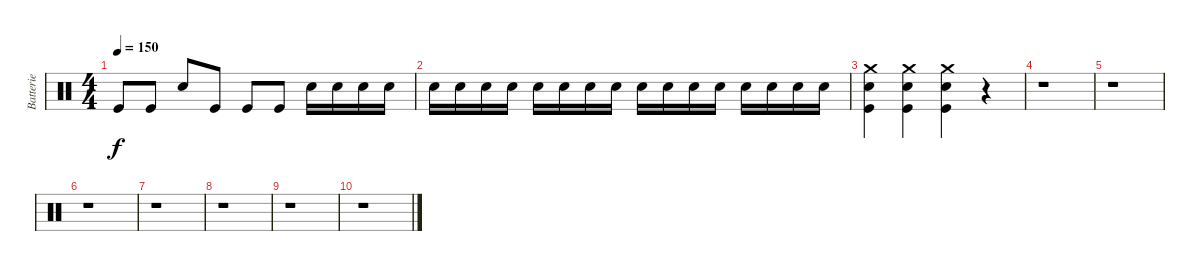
\track ("Batterie" "Batterie") {instrument percussion}
\staff {score}
\articulation defaults
\ts (4 4)
\tempo 150
\clef neutral
\ks c "Kick (hit)".8{dy f} "Kick (hit)".8 "Electric Snare (hit)".8 "Kick (hit)".8 "Kick (hit)".8 "Kick (hit)".8 "Electric Snare (hit)".16 "Electric Snare (hit)".16 "Electric Snare (hit)".16 "Electric Snare (hit)".16
|
"Electric Snare (hit)".16 "Electric Snare (hit)".16 "Electric Snare (hit)".16 "Electric Snare (hit)".16 "Electric Snare (hit)".16 "Electric Snare (hit)".16 "Electric Snare (hit)".16 "Electric Snare (hit)".16 "Electric Snare (hit)".16 "Electric Snare (hit)".16 "Electric Snare (hit)".16 "Electric Snare (hit)".16 "Electric Snare (hit)".16 "Electric Snare (hit)".16 "Electric Snare (hit)".16 "Electric Snare (hit)".16 |
("Crash medium (hit)" "Electric Snare (hit)" "Kick (hit)").4 ("Crash medium (hit)" "Electric Snare (hit)" "Kick (hit)").4 ("Crash medium (hit)" "Electric Snare (hit)" "Kick (hit)").4 r.4 |
r.1 |
r.1 |
r.1 |
r.1 |
r.1 |
r.1 |
r.1
